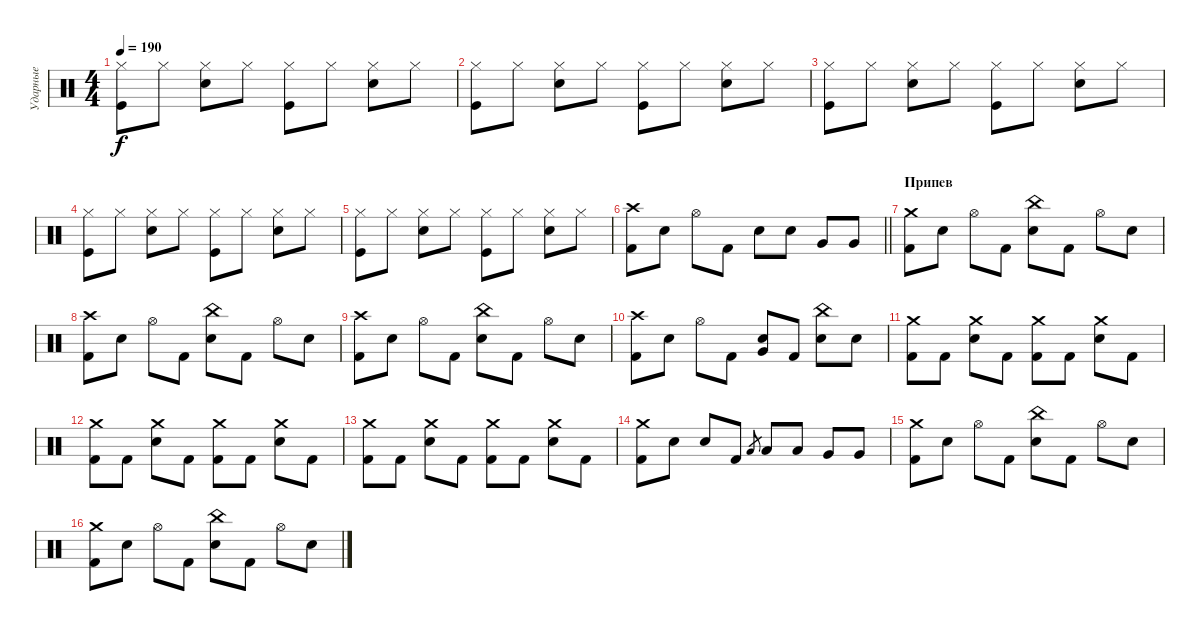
\track ("Ударные" "Ударные") {instrument percussion}
\staff {score}
\articulation defaults
\ts (4 4)
\tempo 190
\clef neutral
\ks c
("Hi-Hat (closed)" "Kick (hit)").8{dy f} "Hi-Hat (closed)".8 ("Hi-Hat (closed)" "Snare (hit) 2").8 "Hi-Hat (closed)".8 ("Hi-Hat (closed)" "Kick (hit)").8 "Hi-Hat (closed)".8 ("Hi-Hat (closed)" "Snare (hit) 2").8 "Hi-Hat (closed)".8 |
("Hi-Hat (closed)" "Kick (hit)").8 "Hi-Hat (closed)".8 ("Hi-Hat (closed)" "Snare (hit) 2").8 "Hi-Hat (closed)".8 ("Hi-Hat (closed)" "Kick (hit)").8 "Hi-Hat (closed)".8 ("Hi-Hat (closed)" "Snare (hit) 2").8 "Hi-Hat (closed)".8 |
("Hi-Hat (closed)" "Kick (hit)").8 "Hi-Hat (closed)".8 ("Hi-Hat (closed)" "Snare (hit) 2").8 "Hi-Hat (closed)".8 ("Hi-Hat (closed)" "Kick (hit)").8 "Hi-Hat (closed)".8 ("Hi-Hat (closed)" "Snare (hit) 2").8 "Hi-Hat (closed)".8 |
("Hi-Hat (closed)" "Kick (hit)").8 "Hi-Hat (closed)".8 ("Hi-Hat (closed)" "Snare (hit) 2").8 "Hi-Hat (closed)".8 ("Hi-Hat (closed)" "Kick (hit)").8 "Hi-Hat (closed)".8 ("Hi-Hat (closed)" "Snare (hit) 2").8 "Hi-Hat (closed)".8 |
("Hi-Hat (closed)" "Kick (hit)").8 "Hi-Hat (closed)".8 ("Hi-Hat (closed)" "Snare (hit) 2").8 "Hi-Hat (closed)".8 ("Hi-Hat (closed)" "Kick (hit)").8 "Hi-Hat (closed)".8 ("Hi-Hat (closed)" "Snare (hit) 2").8 "Hi-Hat (closed)".8 |
\barLineRight lightlight
("Crash high (hit)" "Kick (hit) 2").8 "Electric Snare (hit)".8 "Hi-Hat (open)".8 "Kick (hit) 2".8 "Electric Snare (hit)".8 "Electric Snare (hit)".8 "Very Low Tom (hit)".8 "Very Low Tom (hit)".8 |
\section ("" "Припев")
("Crash medium (hit)" "Kick (hit) 2").8 "Electric Snare (hit)".8 "Hi-Hat (open)".8 "Kick (hit) 2".8 ("China (hit)" "Electric Snare (hit)").8 "Kick (hit) 2".8 "Hi-Hat (open)".8 "Electric Snare (hit)".8 |
("Crash high (hit)" "Kick (hit) 2").8 "Electric Snare (hit)".8 "Hi-Hat (open)".8 "Kick (hit) 2".8 ("China (hit)" "Electric Snare (hit)").8 "Kick (hit) 2".8 "Hi-Hat (open)".8 "Electric Snare (hit)".8 |
("Crash high (hit)" "Kick (hit) 2").8 "Electric Snare (hit)".8 "Hi-Hat (open)".8 "Kick (hit) 2".8 ("China (hit)" "Electric Snare (hit)").8 "Kick (hit) 2".8 "Hi-Hat (open)".8 "Electric Snare (hit)".8 |
("Crash high (hit)" "Kick (hit) 2").8 "Electric Snare (hit)".8 "Hi-Hat (open)".8 "Kick (hit) 2".8 ("Electric Snare (hit)" "Very Low Tom (hit)").8 "Kick (hit) 2".8 ("China (hit)" "Electric Snare (hit)").8 "Electric Snare (hit)".8 |
("Crash medium (hit)" "Kick (hit) 2").8 "Kick (hit) 2".8 ("Crash medium (hit)" "Electric Snare (hit)").8 "Kick (hit) 2".8 ("Crash medium (hit)" "Kick (hit) 2").8 "Kick (hit) 2".8 ("Crash medium (hit)" "Electric Snare (hit)").8 "Kick (hit) 2".8 |
("Crash medium (hit)" "Kick (hit) 2").8 "Kick (hit) 2".8 ("Crash medium (hit)" "Electric Snare (hit)").8 "Kick (hit) 2".8 ("Crash medium (hit)" "Kick (hit) 2").8 "Kick (hit) 2".8 ("Crash medium (hit)" "Electric Snare (hit)").8 "Kick (hit) 2".8 |
("Crash medium (hit)" "Kick (hit) 2").8 "Kick (hit) 2".8 ("Crash medium (hit)" "Electric Snare (hit)").8 "Kick (hit) 2".8 ("Crash medium (hit)" "Kick (hit) 2").8 "Kick (hit) 2".8 ("Crash medium (hit)" "Electric Snare (hit)").8 "Kick (hit) 2".8 |
("Crash medium (hit)" "Kick (hit) 2").8 "Snare (hit) 2".8 "Snare (hit) 2".8 "Kick (hit) 2".8 "Low Tom (hit)".8{gr} "Low Tom (hit)".8 "Low Tom (hit)".8 "Very Low Tom (hit)".8 "Very Low Tom (hit)".8 |
("Crash medium (hit)" "Kick (hit) 2").8 "Electric Snare (hit)".8 "Hi-Hat (open)".8 "Kick (hit) 2".8 ("China (hit)" "Electric Snare (hit)").8 "Kick (hit) 2".8 "Hi-Hat (open)".8 "Electric Snare (hit)".8 |
("Crash medium (hit)" "Kick (hit) 2").8 "Electric Snare (hit)".8 "Hi-Hat (open)".8 "Kick (hit) 2".8 ("China (hit)" "Electric Snare (hit)").8 "Kick (hit) 2".8 "Hi-Hat (open)".8 "Electric Snare (hit)".8
